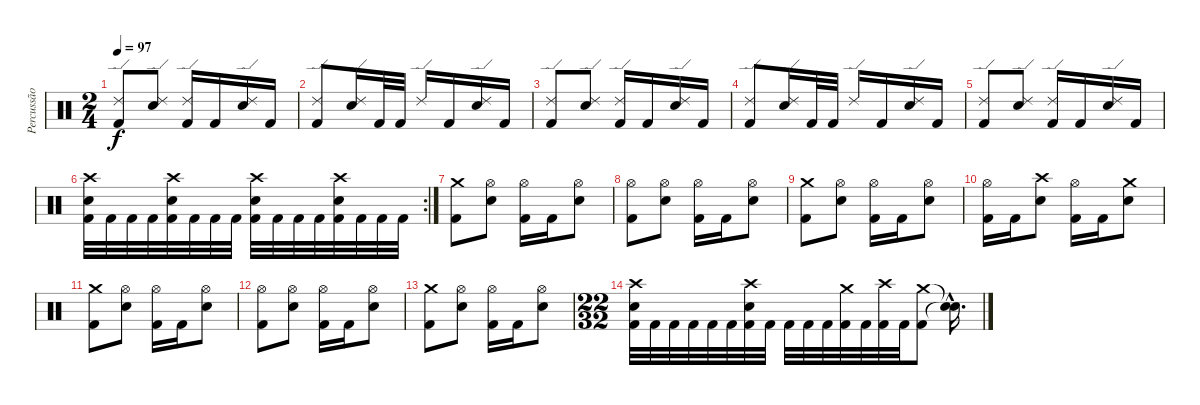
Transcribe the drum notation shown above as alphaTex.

\track ("Percussão" "Percussão") {instrument percussion}
\staff {score}
\articulation defaults
\ts (2 4)
\tempo 97
\clef neutral
\ks c
("Ride (edge) 2" "Kick (hit) 2").8{dy f} ("Ride (edge) 2" "Snare (hit) 2").8 ("Ride (edge) 2" "Kick (hit) 2").16 "Kick (hit) 2".16 ("Ride (edge) 2" "Snare (hit) 2").16 "Kick (hit) 2".16 |
("Ride (edge) 2" "Kick (hit) 2").8 ("Ride (edge) 2" "Snare (hit) 2").16 "Kick (hit) 2".32 "Kick (hit) 2".32 "Ride (edge) 2".16 "Kick (hit) 2".16 ("Ride (edge) 2" "Snare (hit) 2").16 "Kick (hit) 2".16 |
("Ride (edge) 2" "Kick (hit) 2").8 ("Ride (edge) 2" "Snare (hit) 2").8 ("Ride (edge) 2" "Kick (hit) 2").16 "Kick (hit) 2".16 ("Ride (edge) 2" "Snare (hit) 2").16 "Kick (hit) 2".16 |
("Ride (edge) 2" "Kick (hit) 2").8 ("Ride (edge) 2" "Snare (hit) 2").16 "Kick (hit) 2".32 "Kick (hit) 2".32 "Ride (edge) 2".16 "Kick (hit) 2".16 ("Ride (edge) 2" "Snare (hit) 2").16 "Kick (hit) 2".16 |
("Ride (edge) 2" "Kick (hit) 2").8 ("Ride (edge) 2" "Snare (hit) 2").8 ("Ride (edge) 2" "Kick (hit) 2").16 "Kick (hit) 2".16 ("Ride (edge) 2" "Snare (hit) 2").16 "Kick (hit) 2".16 |
\rc 2
("Crash high (hit)" "Snare (hit) 2" "Kick (hit) 2").32 "Kick (hit) 2".32 "Kick (hit) 2".32 "Kick (hit) 2".32 ("Crash high (hit)" "Snare (hit) 2" "Kick (hit) 2").32 "Kick (hit) 2".32 "Kick (hit) 2".32 "Kick (hit) 2".32 ("Crash high (hit)" "Snare (hit) 2" "Kick (hit) 2").32 "Kick (hit) 2".32 "Kick (hit) 2".32 "Kick (hit) 2".32 ("Crash high (hit)" "Snare (hit) 2" "Kick (hit) 2").32 "Kick (hit) 2".32 "Kick (hit) 2".32 "Kick (hit) 2".32 |
("Crash medium (hit)" "Kick (hit) 2").8 ("Hi-Hat (open)" "Snare (hit) 2").8 ("Hi-Hat (open)" "Kick (hit) 2").16 "Kick (hit) 2".16 ("Hi-Hat (open)" "Snare (hit) 2").8 |
("Hi-Hat (open)" "Kick (hit) 2").8 ("Hi-Hat (open)" "Snare (hit) 2").8 ("Hi-Hat (open)" "Kick (hit) 2").16 "Kick (hit) 2".16 ("Hi-Hat (open)" "Snare (hit) 2").8 |
("Crash medium (hit)" "Kick (hit) 2").8 ("Hi-Hat (open)" "Snare (hit) 2").8 ("Hi-Hat (open)" "Kick (hit) 2").16 "Kick (hit) 2".16 ("Hi-Hat (open)" "Snare (hit) 2").8 |
("Hi-Hat (open)" "Kick (hit) 2").16 "Kick (hit) 2".16 ("Crash high (hit)" "Snare (hit) 2").8 ("Hi-Hat (open)" "Kick (hit) 2").16 "Kick (hit) 2".16 ("Crash medium (hit)" "Snare (hit) 2").8 |
("Crash medium (hit)" "Kick (hit) 2").8 ("Hi-Hat (open)" "Snare (hit) 2").8 ("Hi-Hat (open)" "Kick (hit) 2").16 "Kick (hit) 2".16 ("Hi-Hat (open)" "Snare (hit) 2").8 |
("Hi-Hat (open)" "Kick (hit) 2").8 ("Hi-Hat (open)" "Snare (hit) 2").8 ("Hi-Hat (open)" "Kick (hit) 2").16 "Kick (hit) 2".16 ("Hi-Hat (open)" "Snare (hit) 2").8 |
("Crash medium (hit)" "Kick (hit) 2").8 ("Hi-Hat (open)" "Snare (hit) 2").8 ("Hi-Hat (open)" "Kick (hit) 2").16 "Kick (hit) 2".16 ("Hi-Hat (open)" "Snare (hit) 2").8 |
\ts (22 32)
("Crash high (hit)" "Snare (hit) 2" "Kick (hit) 2").32 "Kick (hit) 2".32 "Kick (hit) 2".32 "Kick (hit) 2".32 "Kick (hit) 2".32 "Kick (hit) 2".32 ("Crash high (hit)" "Snare (hit) 2" "Kick (hit) 2").32 "Kick (hit) 2".32 "Kick (hit) 2".32 "Kick (hit) 2".32 "Kick (hit) 2".32 ("Crash medium (hit)" "Kick (hit) 2").32 "Kick (hit) 2".32 ("Crash high (hit)" "Kick (hit) 2").32 "Kick (hit) 2".32 ("Crash medium (hit)" "Kick (hit) 2").8 ("Snare (hit)"{hac t} "Snare (hit)"{hac t}).16{d}
